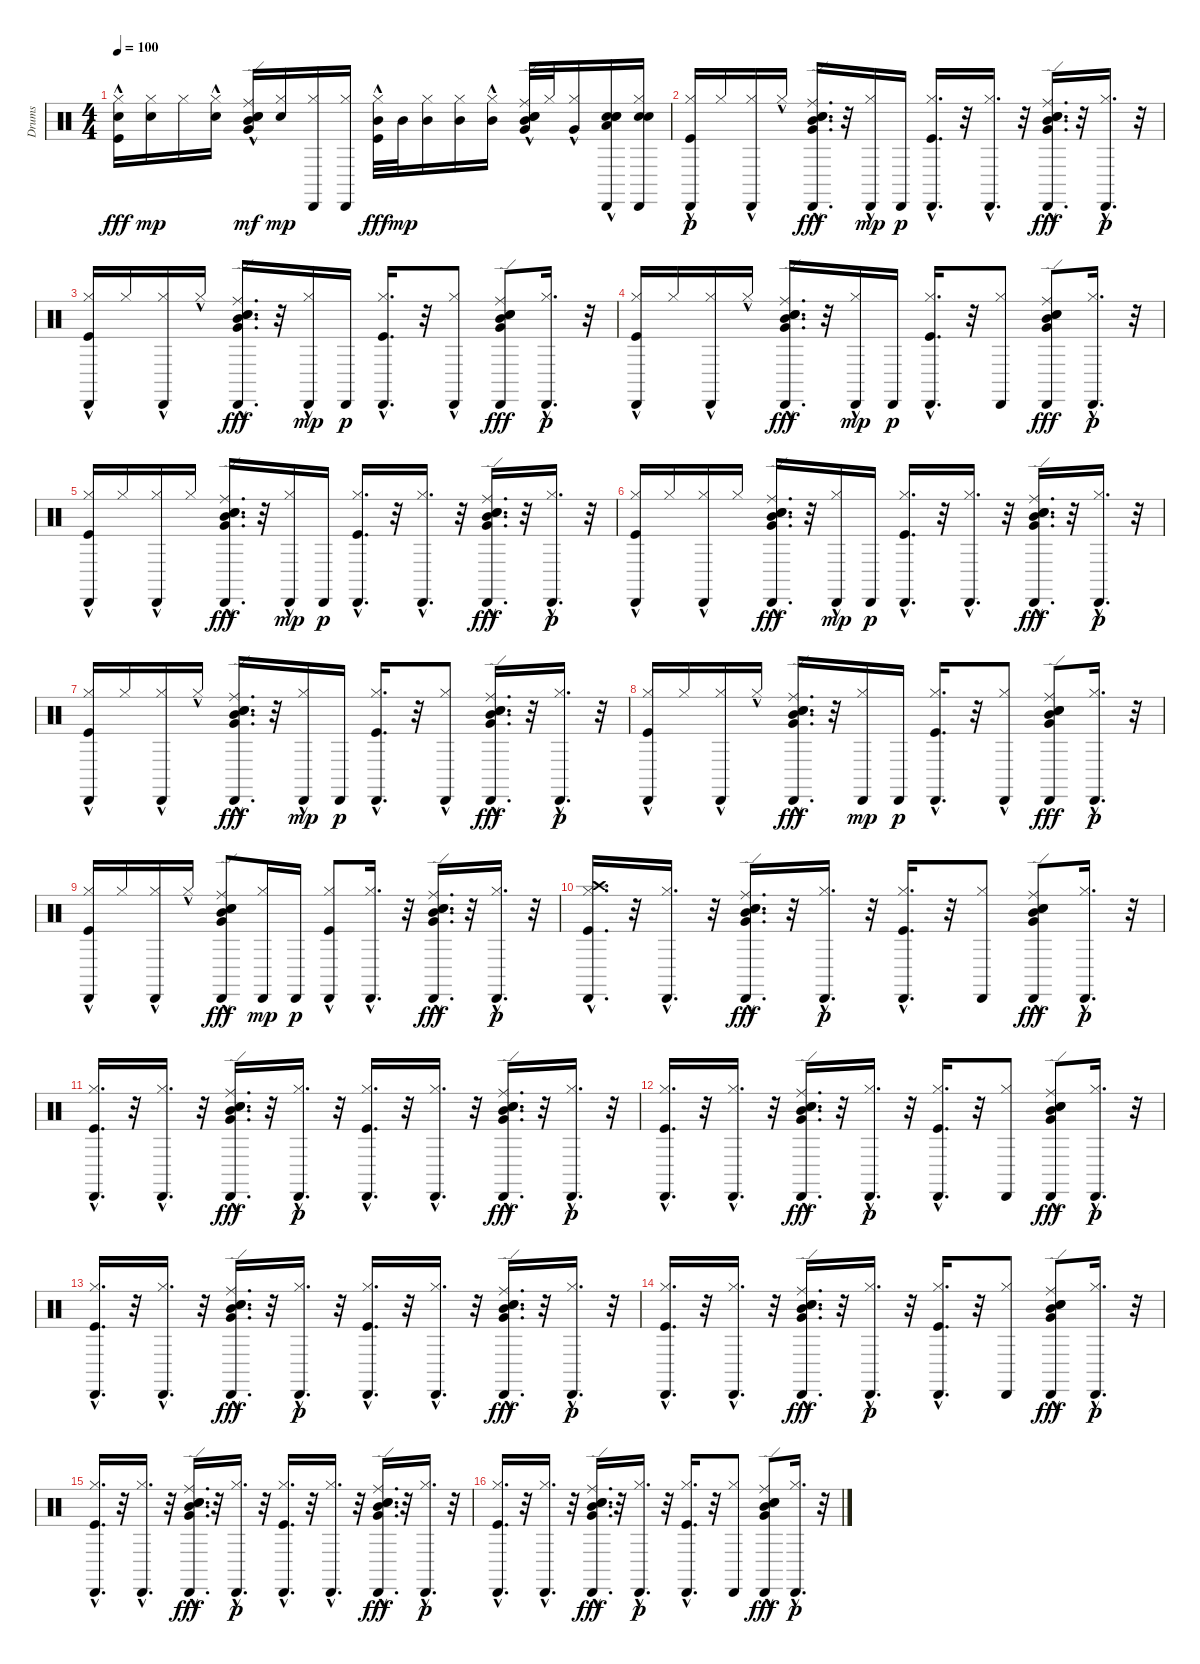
\track ("Drums" "Drums") {instrument percussion}
\staff {score}
\articulation defaults
\ts (4 4)
\tempo 100
\clef neutral
\ks c
("Hand Clap (hit)" "Hi-Hat (closed)" "Kick (hit)"{hac}).16{dy fff} ("Hand Clap (hit)" "Hi-Hat (closed)").16{dy mp} "Hi-Hat (closed)".16 ("Hand Clap (hit)"{hac} "Hi-Hat (closed)"{hac}).16 ("Electric Snare (hit)"{hac} "Snare (hit) 2"{hac} "Ride (edge)"{hac} "Mid Tom (hit)"{hac} "Very Low Tom (hit)"{hac}).16{dy mf} ("Hand Clap (hit)" "Hi-Hat (closed)").16{dy mp} ("Cabasa (hit)" "Hi-Hat (closed)").16 ("Cabasa (hit)" "Hi-Hat (closed)").16 ("Mid Tom (hit)" "Hi-Hat (closed)" "Kick (hit)"{hac}).32{dy fff} "Mid Tom (hit)".32{dy mp} ("Mid Tom (hit)" "Hi-Hat (closed)").16 ("Mid Tom (hit)" "Hi-Hat (closed)").16 ("Mid Tom (hit)" "Hi-Hat (closed)"{hac}).16 ("Very Low Tom (hit)" "Electric Snare (hit)"{hac} "Snare (hit) 2"{hac} "Ride (edge)"{hac} "Mid Tom (hit)"{hac}).32 "Hi-Hat (closed)".32 ("Very Low Tom (hit)"{hac} "Hi-Hat (closed)").16 ("Low Tom (hit)"{hac} "Snare (hit) 2" "Snare (hit) 2" "Cabasa (hit)" "Electric Snare (hit)"{hac}).16 ("Snare (hit) 2" "Snare (hit) 2" "Cabasa (hit)" "Hi-Hat (closed)").16 |
("Hi-Hat (closed)" "Kick (hit)"{hac} "Cabasa (hit)"{hac}).16{dy p} "Hi-Hat (closed)".16 ("Hi-Hat (closed)" "Cabasa (hit)"{hac}).16 "Hi-Hat (closed)"{hac}.16 ("Electric Snare (hit)"{hac} "Snare (hit) 2"{hac} "Ride (edge)"{hac} "Mid Tom (hit)"{hac} "Cabasa (hit)"{hac} "Very Low Tom (hit)"{hac}).16{d dy fff} r.32 ("Cabasa (hit)" "Hi-Hat (closed)"{hac}).16{dy mp} "Cabasa (hit)".16{dy p} ("Hi-Hat (closed)"{hac} "Kick (hit)"{hac} "Cabasa (hit)"{hac}).16{d} r.32 ("Hi-Hat (closed)"{hac} "Cabasa (hit)"{hac}).16{d} r.32 ("Electric Snare (hit)"{hac} "Snare (hit) 2"{hac} "Ride (edge)"{hac} "Mid Tom (hit)"{hac} "Cabasa (hit)"{hac} "Very Low Tom (hit)"{hac}).16{d dy fff} r.32 ("Hi-Hat (closed)"{hac} "Cabasa (hit)"{hac}).16{d dy p} r.32 |
("Hi-Hat (closed)" "Kick (hit)"{hac} "Cabasa (hit)"{hac}).16 "Hi-Hat (closed)".16 ("Hi-Hat (closed)" "Cabasa (hit)"{hac}).16 "Hi-Hat (closed)"{hac}.16 ("Electric Snare (hit)"{hac} "Snare (hit) 2"{hac} "Ride (edge)"{hac} "Mid Tom (hit)"{hac} "Cabasa (hit)"{hac} "Very Low Tom (hit)"{hac}).16{d dy fff} r.32 ("Cabasa (hit)" "Hi-Hat (closed)"{hac}).16{dy mp} "Cabasa (hit)".16{dy p} ("Hi-Hat (closed)"{hac} "Kick (hit)"{hac} "Cabasa (hit)"{hac}).16{d} r.32 ("Hi-Hat (closed)"{hac} "Cabasa (hit)").8 ("Electric Snare (hit)" "Snare (hit) 2" "Ride (edge)" "Mid Tom (hit)" "Cabasa (hit)" "Very Low Tom (hit)").8{dy fff} ("Hi-Hat (closed)"{hac} "Cabasa (hit)"{hac}).16{d dy p} r.32 |
("Hi-Hat (closed)" "Kick (hit)"{hac} "Cabasa (hit)"{hac}).16 "Hi-Hat (closed)".16 ("Hi-Hat (closed)" "Cabasa (hit)"{hac}).16 "Hi-Hat (closed)"{hac}.16 ("Electric Snare (hit)"{hac} "Snare (hit) 2"{hac} "Ride (edge)"{hac} "Mid Tom (hit)"{hac} "Cabasa (hit)"{hac} "Very Low Tom (hit)"{hac}).16{d dy fff} r.32 ("Cabasa (hit)" "Hi-Hat (closed)"{hac}).16{dy mp} "Cabasa (hit)".16{dy p} ("Hi-Hat (closed)"{hac} "Kick (hit)"{hac} "Cabasa (hit)"{hac}).16{d} r.32 ("Hi-Hat (closed)" "Cabasa (hit)").8 ("Electric Snare (hit)" "Snare (hit) 2" "Ride (edge)" "Mid Tom (hit)" "Cabasa (hit)" "Very Low Tom (hit)").8{dy fff} ("Hi-Hat (closed)"{hac} "Cabasa (hit)"{hac}).16{d dy p} r.32 |
("Hi-Hat (closed)" "Kick (hit)"{hac} "Cabasa (hit)"{hac}).16 "Hi-Hat (closed)".16 ("Hi-Hat (closed)" "Cabasa (hit)"{hac}).16 "Hi-Hat (closed)".16 ("Electric Snare (hit)"{hac} "Snare (hit) 2"{hac} "Ride (edge)"{hac} "Mid Tom (hit)"{hac} "Cabasa (hit)"{hac} "Very Low Tom (hit)"{hac}).16{d dy fff} r.32 ("Cabasa (hit)" "Hi-Hat (closed)"{hac}).16{dy mp} "Cabasa (hit)".16{dy p} ("Hi-Hat (closed)"{hac} "Kick (hit)"{hac} "Cabasa (hit)"{hac}).16{d} r.32 ("Hi-Hat (closed)"{hac} "Cabasa (hit)"{hac}).16{d} r.32 ("Electric Snare (hit)"{hac} "Snare (hit) 2"{hac} "Ride (edge)"{hac} "Mid Tom (hit)"{hac} "Cabasa (hit)"{hac} "Very Low Tom (hit)"{hac}).16{d dy fff} r.32 ("Hi-Hat (closed)"{hac} "Cabasa (hit)"{hac}).16{d dy p} r.32 |
("Hi-Hat (closed)" "Kick (hit)"{hac} "Cabasa (hit)"{hac}).16 "Hi-Hat (closed)".16 ("Hi-Hat (closed)" "Cabasa (hit)"{hac}).16 "Hi-Hat (closed)".16 ("Electric Snare (hit)"{hac} "Snare (hit) 2"{hac} "Ride (edge)"{hac} "Mid Tom (hit)"{hac} "Cabasa (hit)"{hac} "Very Low Tom (hit)"{hac}).16{d dy fff} r.32 ("Cabasa (hit)" "Hi-Hat (closed)"{hac}).16{dy mp} "Cabasa (hit)".16{dy p} ("Hi-Hat (closed)"{hac} "Kick (hit)"{hac} "Cabasa (hit)"{hac}).16{d} r.32 ("Hi-Hat (closed)"{hac} "Cabasa (hit)"{hac}).16{d} r.32 ("Electric Snare (hit)"{hac} "Snare (hit) 2"{hac} "Ride (edge)"{hac} "Mid Tom (hit)"{hac} "Cabasa (hit)"{hac} "Very Low Tom (hit)"{hac}).16{d dy fff} r.32 ("Hi-Hat (closed)"{hac} "Cabasa (hit)"{hac}).16{d dy p} r.32 |
("Hi-Hat (closed)" "Kick (hit)"{hac} "Cabasa (hit)"{hac}).16 "Hi-Hat (closed)".16 ("Hi-Hat (closed)" "Cabasa (hit)"{hac}).16 "Hi-Hat (closed)"{hac}.16 ("Electric Snare (hit)"{hac} "Snare (hit) 2"{hac} "Ride (edge)"{hac} "Mid Tom (hit)"{hac} "Cabasa (hit)"{hac} "Very Low Tom (hit)"{hac}).16{d dy fff} r.32 ("Cabasa (hit)" "Hi-Hat (closed)"{hac}).16{dy mp} "Cabasa (hit)".16{dy p} ("Hi-Hat (closed)"{hac} "Kick (hit)"{hac} "Cabasa (hit)"{hac}).16{d} r.32 ("Hi-Hat (closed)"{hac} "Cabasa (hit)").8 ("Electric Snare (hit)"{hac} "Snare (hit) 2"{hac} "Ride (edge)"{hac} "Mid Tom (hit)"{hac} "Cabasa (hit)"{hac} "Very Low Tom (hit)"{hac}).16{d dy fff} r.32 ("Hi-Hat (closed)"{hac} "Cabasa (hit)"{hac}).16{d dy p} r.32 |
("Hi-Hat (closed)" "Kick (hit)"{hac} "Cabasa (hit)"{hac}).16 "Hi-Hat (closed)".16 ("Hi-Hat (closed)" "Cabasa (hit)"{hac}).16 "Hi-Hat (closed)"{hac}.16 ("Electric Snare (hit)"{hac} "Snare (hit) 2"{hac} "Ride (edge)"{hac} "Mid Tom (hit)"{hac} "Cabasa (hit)"{hac} "Very Low Tom (hit)"{hac}).16{d dy fff} r.32 ("Cabasa (hit)" "Hi-Hat (closed)").16{dy mp} "Cabasa (hit)".16{dy p} ("Hi-Hat (closed)"{hac} "Kick (hit)"{hac} "Cabasa (hit)"{hac}).16{d} r.32 ("Hi-Hat (closed)"{hac} "Cabasa (hit)").8 ("Electric Snare (hit)" "Snare (hit) 2" "Ride (edge)" "Mid Tom (hit)" "Cabasa (hit)" "Very Low Tom (hit)").8{dy fff} ("Hi-Hat (closed)"{hac} "Cabasa (hit)"{hac}).16{d dy p} r.32 |
("Hi-Hat (closed)" "Kick (hit)"{hac} "Cabasa (hit)").16 "Hi-Hat (closed)".16 ("Hi-Hat (closed)" "Cabasa (hit)"{hac}).16 "Hi-Hat (closed)"{hac}.16 ("Electric Snare (hit)" "Snare (hit) 2" "Ride (edge)" "Mid Tom (hit)" "Cabasa (hit)" "Very Low Tom (hit)"{hac}).8{dy fff} ("Cabasa (hit)" "Hi-Hat (closed)").16{dy mp} "Cabasa (hit)".16{dy p} ("Hi-Hat (closed)" "Kick (hit)"{hac} "Cabasa (hit)").8 ("Hi-Hat (closed)"{hac} "Cabasa (hit)"{hac}).16{d} r.32 ("Electric Snare (hit)"{hac} "Snare (hit) 2"{hac} "Ride (edge)"{hac} "Mid Tom (hit)"{hac} "Cabasa (hit)"{hac} "Very Low Tom (hit)"{hac}).16{d dy fff} r.32 ("Hi-Hat (closed)"{hac} "Cabasa (hit)"{hac}).16{d dy p} r.32 |
("Crash high (hit)" "Hi-Hat (closed)"{hac} "Kick (hit)"{hac} "Cabasa (hit)"{hac}).16{d} r.32 ("Hi-Hat (closed)"{hac} "Cabasa (hit)"{hac}).16{d} r.32 ("Electric Snare (hit)"{hac} "Snare (hit) 2"{hac} "Ride (edge)"{hac} "Mid Tom (hit)"{hac} "Cabasa (hit)"{hac} "Very Low Tom (hit)"{hac}).16{d dy fff} r.32 ("Hi-Hat (closed)"{hac} "Cabasa (hit)"{hac}).16{d dy p} r.32 ("Hi-Hat (closed)"{hac} "Kick (hit)"{hac} "Cabasa (hit)"{hac}).16{d} r.32 ("Hi-Hat (closed)" "Cabasa (hit)").8 ("Electric Snare (hit)" "Snare (hit) 2" "Ride (edge)" "Mid Tom (hit)" "Cabasa (hit)" "Very Low Tom (hit)"{hac}).8{dy fff} ("Hi-Hat (closed)"{hac} "Cabasa (hit)"{hac}).16{d dy p} r.32 |
("Hi-Hat (closed)"{hac} "Kick (hit)"{hac} "Cabasa (hit)"{hac}).16{d} r.32 ("Hi-Hat (closed)"{hac} "Cabasa (hit)"{hac}).16{d} r.32 ("Electric Snare (hit)"{hac} "Snare (hit) 2"{hac} "Ride (edge)"{hac} "Mid Tom (hit)"{hac} "Cabasa (hit)"{hac} "Very Low Tom (hit)"{hac}).16{d dy fff} r.32 ("Hi-Hat (closed)"{hac} "Cabasa (hit)"{hac}).16{d dy p} r.32 ("Hi-Hat (closed)"{hac} "Kick (hit)"{hac} "Cabasa (hit)"{hac}).16{d} r.32 ("Hi-Hat (closed)"{hac} "Cabasa (hit)"{hac}).16{d} r.32 ("Electric Snare (hit)"{hac} "Snare (hit) 2"{hac} "Ride (edge)"{hac} "Mid Tom (hit)"{hac} "Cabasa (hit)"{hac} "Very Low Tom (hit)"{hac}).16{d dy fff} r.32 ("Hi-Hat (closed)"{hac} "Cabasa (hit)"{hac}).16{d dy p} r.32 |
("Hi-Hat (closed)"{hac} "Kick (hit)"{hac} "Cabasa (hit)"{hac}).16{d} r.32 ("Hi-Hat (closed)"{hac} "Cabasa (hit)"{hac}).16{d} r.32 ("Electric Snare (hit)"{hac} "Snare (hit) 2"{hac} "Ride (edge)"{hac} "Mid Tom (hit)"{hac} "Cabasa (hit)"{hac} "Very Low Tom (hit)"{hac}).16{d dy fff} r.32 ("Hi-Hat (closed)"{hac} "Cabasa (hit)"{hac}).16{d dy p} r.32 ("Hi-Hat (closed)"{hac} "Kick (hit)"{hac} "Cabasa (hit)"{hac}).16{d} r.32 ("Hi-Hat (closed)" "Cabasa (hit)").8 ("Electric Snare (hit)" "Snare (hit) 2" "Ride (edge)" "Mid Tom (hit)" "Cabasa (hit)" "Very Low Tom (hit)"{hac}).8{dy fff} ("Hi-Hat (closed)"{hac} "Cabasa (hit)"{hac}).16{d dy p} r.32 |
("Hi-Hat (closed)"{hac} "Kick (hit)"{hac} "Cabasa (hit)"{hac}).16{d} r.32 ("Hi-Hat (closed)"{hac} "Cabasa (hit)"{hac}).16{d} r.32 ("Electric Snare (hit)"{hac} "Snare (hit) 2"{hac} "Ride (edge)"{hac} "Mid Tom (hit)"{hac} "Cabasa (hit)"{hac} "Very Low Tom (hit)"{hac}).16{d dy fff} r.32 ("Hi-Hat (closed)"{hac} "Cabasa (hit)"{hac}).16{d dy p} r.32 ("Hi-Hat (closed)"{hac} "Kick (hit)"{hac} "Cabasa (hit)"{hac}).16{d} r.32 ("Hi-Hat (closed)"{hac} "Cabasa (hit)"{hac}).16{d} r.32 ("Electric Snare (hit)"{hac} "Snare (hit) 2"{hac} "Ride (edge)"{hac} "Mid Tom (hit)"{hac} "Cabasa (hit)"{hac} "Very Low Tom (hit)"{hac}).16{d dy fff} r.32 ("Hi-Hat (closed)"{hac} "Cabasa (hit)"{hac}).16{d dy p} r.32 |
("Hi-Hat (closed)"{hac} "Kick (hit)"{hac} "Cabasa (hit)"{hac}).16{d} r.32 ("Hi-Hat (closed)"{hac} "Cabasa (hit)"{hac}).16{d} r.32 ("Electric Snare (hit)"{hac} "Snare (hit) 2"{hac} "Ride (edge)"{hac} "Mid Tom (hit)"{hac} "Cabasa (hit)"{hac} "Very Low Tom (hit)"{hac}).16{d dy fff} r.32 ("Hi-Hat (closed)"{hac} "Cabasa (hit)"{hac}).16{d dy p} r.32 ("Hi-Hat (closed)"{hac} "Kick (hit)"{hac} "Cabasa (hit)"{hac}).16{d} r.32 ("Hi-Hat (closed)" "Cabasa (hit)").8 ("Electric Snare (hit)" "Snare (hit) 2" "Ride (edge)" "Mid Tom (hit)" "Cabasa (hit)" "Very Low Tom (hit)"{hac}).8{dy fff} ("Hi-Hat (closed)"{hac} "Cabasa (hit)"{hac}).16{d dy p} r.32 |
("Hi-Hat (closed)"{hac} "Kick (hit)"{hac} "Cabasa (hit)"{hac}).16{d} r.32 ("Hi-Hat (closed)"{hac} "Cabasa (hit)"{hac}).16{d} r.32 ("Electric Snare (hit)"{hac} "Snare (hit) 2"{hac} "Ride (edge)"{hac} "Mid Tom (hit)"{hac} "Cabasa (hit)"{hac} "Very Low Tom (hit)"{hac}).16{d dy fff} r.32 ("Hi-Hat (closed)"{hac} "Cabasa (hit)"{hac}).16{d dy p} r.32 ("Hi-Hat (closed)"{hac} "Kick (hit)"{hac} "Cabasa (hit)"{hac}).16{d} r.32 ("Hi-Hat (closed)"{hac} "Cabasa (hit)"{hac}).16{d} r.32 ("Electric Snare (hit)"{hac} "Snare (hit) 2"{hac} "Ride (edge)"{hac} "Mid Tom (hit)"{hac} "Cabasa (hit)"{hac} "Very Low Tom (hit)"{hac}).16{d dy fff} r.32 ("Hi-Hat (closed)"{hac} "Cabasa (hit)"{hac}).16{d dy p} r.32 |
("Hi-Hat (closed)"{hac} "Kick (hit)"{hac} "Cabasa (hit)"{hac}).16{d} r.32 ("Hi-Hat (closed)"{hac} "Cabasa (hit)"{hac}).16{d} r.32 ("Electric Snare (hit)"{hac} "Snare (hit) 2"{hac} "Ride (edge)"{hac} "Mid Tom (hit)"{hac} "Cabasa (hit)"{hac} "Very Low Tom (hit)"{hac}).16{d dy fff} r.32 ("Hi-Hat (closed)"{hac} "Cabasa (hit)"{hac}).16{d dy p} r.32 ("Hi-Hat (closed)"{hac} "Kick (hit)"{hac} "Cabasa (hit)"{hac}).16{d} r.32 ("Hi-Hat (closed)" "Cabasa (hit)").8 ("Electric Snare (hit)" "Snare (hit) 2" "Ride (edge)" "Mid Tom (hit)" "Cabasa (hit)" "Very Low Tom (hit)"{hac}).8{dy fff} ("Hi-Hat (closed)"{hac} "Cabasa (hit)"{hac}).16{d dy p} r.32
